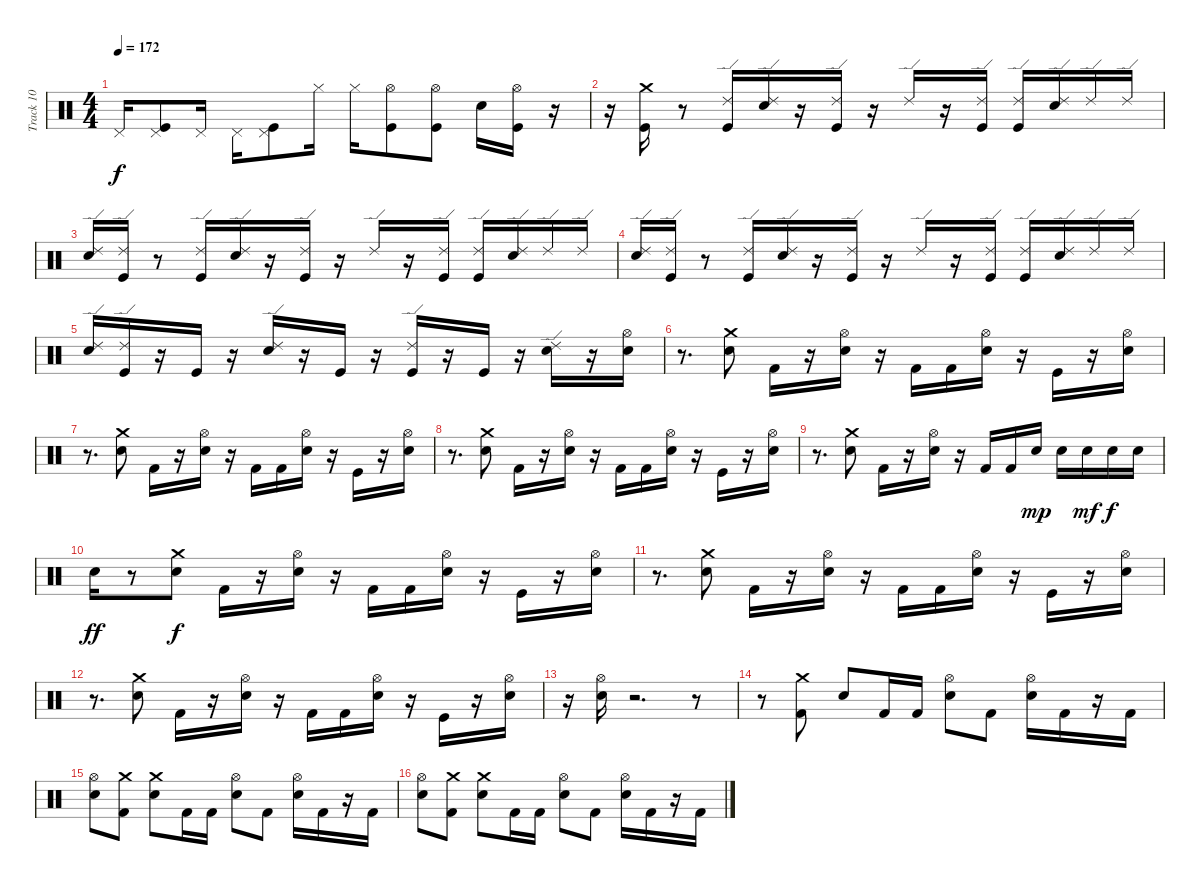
\track ("Track 10" "Track 10") {instrument percussion}
\staff {score}
\articulation defaults
\ts (4 4)
\tempo 172
\clef neutral
\ks c "Pedal Hi-Hat (hit)".16{dy f}
("Pedal Hi-Hat (hit)" "Kick (hit)").8 "Pedal Hi-Hat (hit)".16 "Pedal Hi-Hat (hit)".16 ("Pedal Hi-Hat (hit)" "Kick (hit)").8 "Hi-Hat (closed)".16 "Hi-Hat (closed)".16 ("Hi-Hat (open)" "Kick (hit)").8 ("Hi-Hat (open)" "Kick (hit)").8 "Electric Snare (hit)".16 ("Hi-Hat (open)" "Kick (hit)").16 r.16 |
r.16 ("Crash medium (hit)" "Kick (hit)").16 r.8 ("Kick (hit)" "Ride (edge) 2").16 ("Electric Snare (hit)" "Ride (edge) 2").16 r.16 ("Kick (hit)" "Ride (edge) 2").16 r.16 "Ride (edge) 2".16 r.16 ("Kick (hit)" "Ride (edge) 2").16 ("Kick (hit)" "Ride (edge) 2").16 ("Electric Snare (hit)" "Ride (edge) 2").16 "Ride (edge) 2".16 "Ride (edge) 2".16 |
("Electric Snare (hit)" "Ride (edge) 2").16 ("Ride (edge) 2" "Kick (hit)").16 r.8 ("Kick (hit)" "Ride (edge) 2").16 ("Electric Snare (hit)" "Ride (edge) 2").16 r.16 ("Kick (hit)" "Ride (edge) 2").16 r.16 "Ride (edge) 2".16 r.16 ("Kick (hit)" "Ride (edge) 2").16 ("Kick (hit)" "Ride (edge) 2").16 ("Electric Snare (hit)" "Ride (edge) 2").16 "Ride (edge) 2".16 "Ride (edge) 2".16 |
("Electric Snare (hit)" "Ride (edge) 2").16 ("Ride (edge) 2" "Kick (hit)").16 r.8 ("Kick (hit)" "Ride (edge) 2").16 ("Electric Snare (hit)" "Ride (edge) 2").16 r.16 ("Kick (hit)" "Ride (edge) 2").16 r.16 "Ride (edge) 2".16 r.16 ("Kick (hit)" "Ride (edge) 2").16 ("Kick (hit)" "Ride (edge) 2").16 ("Electric Snare (hit)" "Ride (edge) 2").16 "Ride (edge) 2".16 "Ride (edge) 2".16 |
("Electric Snare (hit)" "Ride (edge) 2").16 ("Ride (edge) 2" "Kick (hit)").16 r.16 "Kick (hit)".16 r.16 ("Ride (edge) 2" "Electric Snare (hit)").16 r.16 "Kick (hit)".16 r.16 ("Ride (edge) 2" "Kick (hit)").16 r.16 "Kick (hit)".16 r.16 ("Ride (edge) 2" "Electric Snare (hit)").16 r.16 ("Hi-Hat (open)" "Electric Snare (hit)").16 |
r.8{d} ("Crash medium (hit)" "Electric Snare (hit)").8 "Kick (hit) 2".16 r.16 ("Hi-Hat (open)" "Electric Snare (hit)").16 r.16 "Kick (hit) 2".16 "Kick (hit) 2".16 ("Hi-Hat (open)" "Electric Snare (hit)").16 r.16 "Kick (hit)".16 r.16 ("Hi-Hat (open)" "Electric Snare (hit)").16 |
r.8{d} ("Crash medium (hit)" "Electric Snare (hit)").8 "Kick (hit) 2".16 r.16 ("Hi-Hat (open)" "Electric Snare (hit)").16 r.16 "Kick (hit) 2".16 "Kick (hit) 2".16 ("Hi-Hat (open)" "Electric Snare (hit)").16 r.16 "Kick (hit)".16 r.16 ("Hi-Hat (open)" "Electric Snare (hit)").16 |
r.8{d} ("Crash medium (hit)" "Electric Snare (hit)").8 "Kick (hit) 2".16 r.16 ("Hi-Hat (open)" "Electric Snare (hit)").16 r.16 "Kick (hit) 2".16 "Kick (hit) 2".16 ("Hi-Hat (open)" "Electric Snare (hit)").16 r.16 "Kick (hit)".16 r.16 ("Hi-Hat (open)" "Electric Snare (hit)").16 |
r.8{d} ("Crash medium (hit)" "Electric Snare (hit)").8 "Kick (hit) 2".16 r.16 ("Hi-Hat (open)" "Electric Snare (hit)").16 r.16 "Kick (hit) 2".16 "Kick (hit) 2".16 "Electric Snare (hit)".16{dy mp} "Electric Snare (hit)".16 "Electric Snare (hit)".16{dy mf} "Electric Snare (hit)".16{dy f} "Electric Snare (hit)".16 |
"Electric Snare (hit)".16{dy ff} r.8 ("Crash medium (hit)" "Electric Snare (hit)").8{dy f} "Kick (hit) 2".16 r.16 ("Hi-Hat (open)" "Electric Snare (hit)").16 r.16 "Kick (hit) 2".16 "Kick (hit) 2".16 ("Hi-Hat (open)" "Electric Snare (hit)").16 r.16 "Kick (hit)".16 r.16 ("Hi-Hat (open)" "Electric Snare (hit)").16 |
r.8{d} ("Crash medium (hit)" "Electric Snare (hit)").8 "Kick (hit) 2".16 r.16 ("Hi-Hat (open)" "Electric Snare (hit)").16 r.16 "Kick (hit) 2".16 "Kick (hit) 2".16 ("Hi-Hat (open)" "Electric Snare (hit)").16 r.16 "Kick (hit)".16 r.16 ("Hi-Hat (open)" "Electric Snare (hit)").16 |
r.8{d} ("Crash medium (hit)" "Electric Snare (hit)").8 "Kick (hit) 2".16 r.16 ("Hi-Hat (open)" "Electric Snare (hit)").16 r.16 "Kick (hit) 2".16 "Kick (hit) 2".16 ("Hi-Hat (open)" "Electric Snare (hit)").16 r.16 "Kick (hit)".16 r.16 ("Hi-Hat (open)" "Electric Snare (hit)").16 |
r.16 ("Hi-Hat (open)" "Electric Snare (hit)").16 r.2{d} r.8 |
r.8 ("Crash medium (hit)" "Kick (hit) 2").8 "Electric Snare (hit)".8 "Kick (hit) 2".16 "Kick (hit) 2".16 ("Hi-Hat (open)" "Electric Snare (hit)").8 "Kick (hit) 2".8 ("Hi-Hat (open)" "Electric Snare (hit)").16 "Kick (hit) 2".16 r.16 "Kick (hit) 2".16 |
("Hi-Hat (open)" "Electric Snare (hit)").8 ("Crash medium (hit)" "Kick (hit) 2").8 ("Crash medium (hit)" "Electric Snare (hit)").8 "Kick (hit) 2".16 "Kick (hit) 2".16 ("Hi-Hat (open)" "Electric Snare (hit)").8 "Kick (hit) 2".8 ("Hi-Hat (open)" "Electric Snare (hit)").16 "Kick (hit) 2".16 r.16 "Kick (hit) 2".16 |
("Hi-Hat (open)" "Electric Snare (hit)").8 ("Crash medium (hit)" "Kick (hit) 2").8 ("Crash medium (hit)" "Electric Snare (hit)").8 "Kick (hit) 2".16 "Kick (hit) 2".16 ("Hi-Hat (open)" "Electric Snare (hit)").8 "Kick (hit) 2".8 ("Hi-Hat (open)" "Electric Snare (hit)").16 "Kick (hit) 2".16 r.16 "Kick (hit) 2".16
